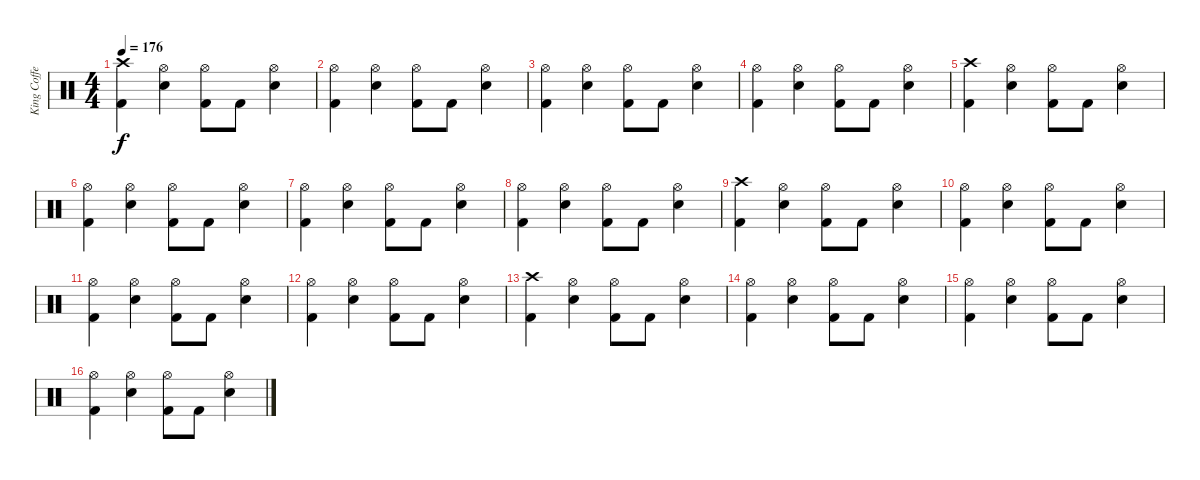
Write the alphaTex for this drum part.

\track ("King Coffey" "King Coffe") {instrument percussion}
\staff {score}
\articulation defaults
\ts (4 4)
\tempo 176
\clef neutral
\ks c
("Crash high (hit)" "Kick (hit) 2").4{dy f} ("Hi-Hat (open)" "Snare (hit) 2").4 ("Hi-Hat (open)" "Kick (hit) 2").8 "Kick (hit) 2".8 ("Hi-Hat (open)" "Snare (hit) 2").4 |
("Hi-Hat (open)" "Kick (hit) 2").4 ("Hi-Hat (open)" "Snare (hit) 2").4 ("Hi-Hat (open)" "Kick (hit) 2").8 "Kick (hit) 2".8 ("Hi-Hat (open)" "Snare (hit) 2").4 |
("Hi-Hat (open)" "Kick (hit) 2").4 ("Hi-Hat (open)" "Snare (hit) 2").4 ("Hi-Hat (open)" "Kick (hit) 2").8 "Kick (hit) 2".8 ("Hi-Hat (open)" "Snare (hit) 2").4 |
("Hi-Hat (open)" "Kick (hit) 2").4 ("Hi-Hat (open)" "Snare (hit) 2").4 ("Hi-Hat (open)" "Kick (hit) 2").8 "Kick (hit) 2".8 ("Hi-Hat (open)" "Snare (hit) 2").4 |
("Crash high (hit)" "Kick (hit) 2").4 ("Hi-Hat (open)" "Snare (hit) 2").4 ("Hi-Hat (open)" "Kick (hit) 2").8 "Kick (hit) 2".8 ("Hi-Hat (open)" "Snare (hit) 2").4 |
("Hi-Hat (open)" "Kick (hit) 2").4 ("Hi-Hat (open)" "Snare (hit) 2").4 ("Hi-Hat (open)" "Kick (hit) 2").8 "Kick (hit) 2".8 ("Hi-Hat (open)" "Snare (hit) 2").4 |
("Hi-Hat (open)" "Kick (hit) 2").4 ("Hi-Hat (open)" "Snare (hit) 2").4 ("Hi-Hat (open)" "Kick (hit) 2").8 "Kick (hit) 2".8 ("Hi-Hat (open)" "Snare (hit) 2").4 |
("Hi-Hat (open)" "Kick (hit) 2").4 ("Hi-Hat (open)" "Snare (hit) 2").4 ("Hi-Hat (open)" "Kick (hit) 2").8 "Kick (hit) 2".8 ("Hi-Hat (open)" "Snare (hit) 2").4 |
("Crash high (hit)" "Kick (hit) 2").4 ("Hi-Hat (open)" "Snare (hit) 2").4 ("Hi-Hat (open)" "Kick (hit) 2").8 "Kick (hit) 2".8 ("Hi-Hat (open)" "Snare (hit) 2").4 |
("Hi-Hat (open)" "Kick (hit) 2").4 ("Hi-Hat (open)" "Snare (hit) 2").4 ("Hi-Hat (open)" "Kick (hit) 2").8 "Kick (hit) 2".8 ("Hi-Hat (open)" "Snare (hit) 2").4 |
("Hi-Hat (open)" "Kick (hit) 2").4 ("Hi-Hat (open)" "Snare (hit) 2").4 ("Hi-Hat (open)" "Kick (hit) 2").8 "Kick (hit) 2".8 ("Hi-Hat (open)" "Snare (hit) 2").4 |
("Hi-Hat (open)" "Kick (hit) 2").4 ("Hi-Hat (open)" "Snare (hit) 2").4 ("Hi-Hat (open)" "Kick (hit) 2").8 "Kick (hit) 2".8 ("Hi-Hat (open)" "Snare (hit) 2").4 |
("Crash high (hit)" "Kick (hit) 2").4 ("Hi-Hat (open)" "Snare (hit) 2").4 ("Hi-Hat (open)" "Kick (hit) 2").8 "Kick (hit) 2".8 ("Hi-Hat (open)" "Snare (hit) 2").4 |
("Hi-Hat (open)" "Kick (hit) 2").4 ("Hi-Hat (open)" "Snare (hit) 2").4 ("Hi-Hat (open)" "Kick (hit) 2").8 "Kick (hit) 2".8 ("Hi-Hat (open)" "Snare (hit) 2").4 |
("Hi-Hat (open)" "Kick (hit) 2").4 ("Hi-Hat (open)" "Snare (hit) 2").4 ("Hi-Hat (open)" "Kick (hit) 2").8 "Kick (hit) 2".8 ("Hi-Hat (open)" "Snare (hit) 2").4 |
("Hi-Hat (open)" "Kick (hit) 2").4 ("Hi-Hat (open)" "Snare (hit) 2").4 ("Hi-Hat (open)" "Kick (hit) 2").8 "Kick (hit) 2".8 ("Hi-Hat (open)" "Snare (hit) 2").4
